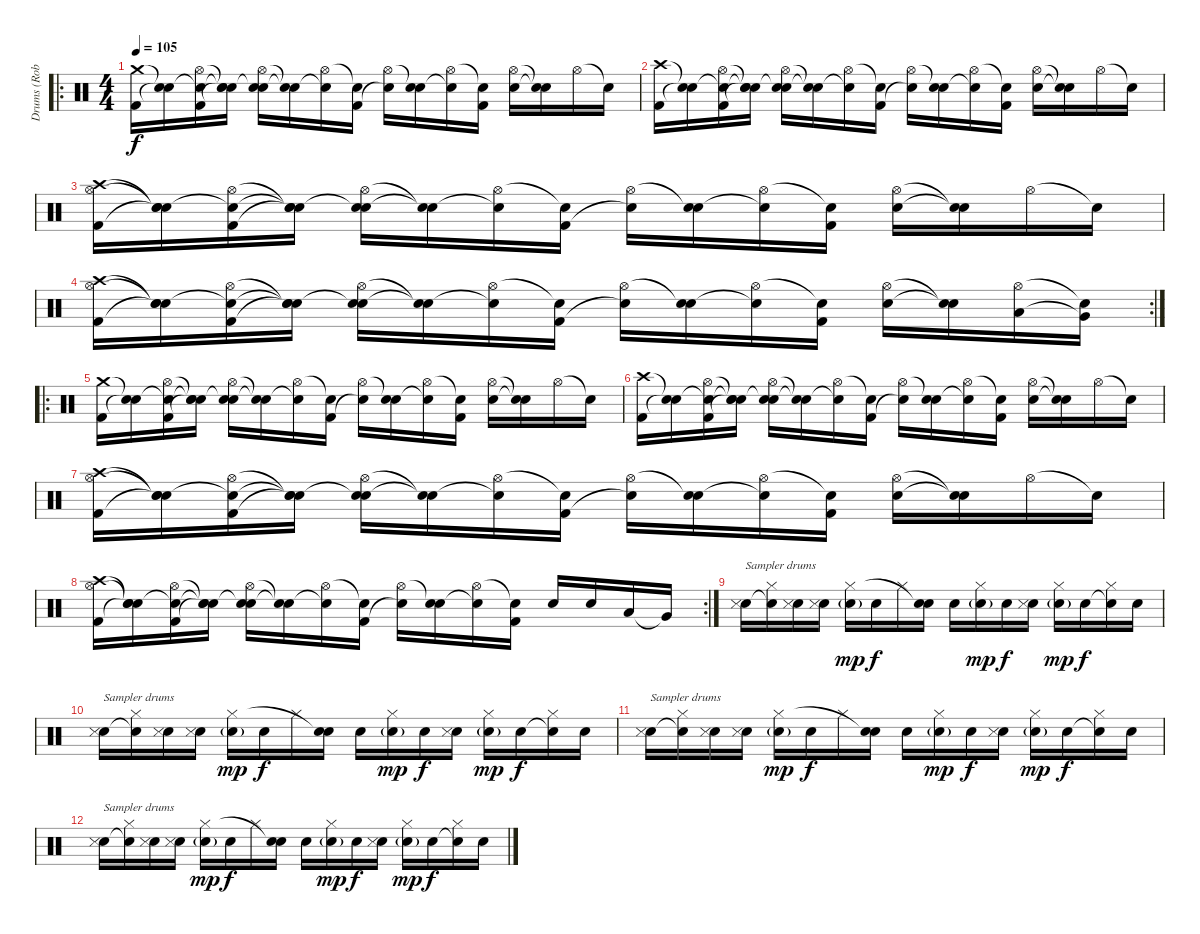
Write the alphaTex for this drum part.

\track ("Drums (Rob Bourdon)" "Drums (Rob") {instrument percussion}
\staff {score}
\articulation defaults
\ro
\ts (4 4)
\tempo 105
\clef neutral
\ks c
("Crash medium (hit)" "Kick (hit) 2").16{dy f} ("Snare (hit)"{t} "Snare (hit)"{t}).16 ("Snare (hit)"{t} "Hi-Hat (open)" "Kick (hit) 2").16 ("Snare (hit)"{t} "Snare (hit)"{t} "Snare (hit)"{t}).16 ("Snare (hit)"{t} "Hi-Hat (open)" "Electric Snare (hit)").16 ("Snare (hit)"{t} "Snare (hit)"{t}).16 ("Hi-Hat (open)" "Snare (hit)"{t}).16 ("Snare (hit)"{t} "Kick (hit) 2").16 ("Hi-Hat (open)" "Snare (hit)"{t}).16 ("Snare (hit)"{t} "Electric Snare (hit)").16 ("Hi-Hat (open)" "Snare (hit)"{t}).16 ("Snare (hit)"{t} "Kick (hit) 2").16 ("Hi-Hat (open)" "Electric Snare (hit)").16 ("Snare (hit)"{t} "Electric Snare (hit)"{t}).16 "Hi-Hat (open)".16 "Snare (hit)"{t}.16 |
("Crash high (hit)" "Kick (hit) 2").16 ("Snare (hit)"{t} "Snare (hit)"{t}).16 ("Snare (hit)"{t} "Hi-Hat (open)" "Kick (hit) 2").16 ("Snare (hit)"{t} "Snare (hit)"{t} "Snare (hit)"{t}).16 ("Snare (hit)"{t} "Hi-Hat (open)" "Electric Snare (hit)").16 ("Snare (hit)"{t} "Snare (hit)"{t}).16 ("Hi-Hat (open)" "Snare (hit)"{t}).16 ("Snare (hit)"{t} "Kick (hit) 2").16 ("Hi-Hat (open)" "Snare (hit)"{t}).16 ("Snare (hit)"{t} "Electric Snare (hit)").16 ("Hi-Hat (open)" "Snare (hit)"{t}).16 ("Snare (hit)"{t} "Kick (hit) 2").16 ("Hi-Hat (open)" "Electric Snare (hit)").16 ("Snare (hit)"{t} "Electric Snare (hit)"{t}).16 "Hi-Hat (open)".16 "Snare (hit)"{t}.16 |
("Crash high (hit)" "Hi-Hat (open)" "Kick (hit) 2").16 ("Snare (hit)"{t} "Snare (hit)"{t} "Snare (hit)"{t}).16 ("Snare (hit)"{t} "Hi-Hat (open)" "Kick (hit) 2").16 ("Snare (hit)"{t} "Snare (hit)"{t} "Snare (hit)"{t}).16 ("Snare (hit)"{t} "Hi-Hat (open)" "Electric Snare (hit)").16 ("Snare (hit)"{t} "Snare (hit)"{t}).16 ("Hi-Hat (open)" "Snare (hit)"{t}).16 ("Snare (hit)"{t} "Kick (hit) 2").16 ("Hi-Hat (open)" "Snare (hit)"{t}).16 ("Snare (hit)"{t} "Electric Snare (hit)").16 ("Hi-Hat (open)" "Snare (hit)"{t}).16 ("Snare (hit)"{t} "Kick (hit) 2").16 ("Hi-Hat (open)" "Electric Snare (hit)").16 ("Snare (hit)"{t} "Electric Snare (hit)"{t}).16 "Hi-Hat (open)".16 "Snare (hit)"{t}.16 |
\rc 2
("Crash high (hit)" "Hi-Hat (open)" "Kick (hit) 2").16 ("Snare (hit)"{t} "Snare (hit)"{t} "Snare (hit)"{t}).16 ("Snare (hit)"{t} "Hi-Hat (open)" "Kick (hit) 2").16 ("Snare (hit)"{t} "Snare (hit)"{t} "Snare (hit)"{t}).16 ("Snare (hit)"{t} "Hi-Hat (open)" "Electric Snare (hit)").16 ("Snare (hit)"{t} "Snare (hit)"{t}).16 ("Hi-Hat (open)" "Snare (hit)"{t}).16 ("Snare (hit)"{t} "Kick (hit) 2").16 ("Hi-Hat (open)" "Snare (hit)"{t}).16 ("Snare (hit)"{t} "Electric Snare (hit)").16 ("Hi-Hat (open)" "Snare (hit)"{t}).16 ("Snare (hit)"{t} "Kick (hit) 2").16 ("Hi-Hat (open)" "Electric Snare (hit)").16 ("Snare (hit)"{t} "Electric Snare (hit)"{t}).16 ("Hi-Hat (open)" "Low Tom (hit)").16 ("Snare (hit)"{t} "Very Low Tom (hit)"{t}).16 |
\ro
("Crash medium (hit)" "Kick (hit) 2").16 ("Snare (hit)"{t} "Snare (hit)"{t}).16 ("Snare (hit)"{t} "Hi-Hat (open)" "Kick (hit) 2").16 ("Snare (hit)"{t} "Snare (hit)"{t} "Snare (hit)"{t}).16 ("Snare (hit)"{t} "Hi-Hat (open)" "Electric Snare (hit)").16 ("Snare (hit)"{t} "Snare (hit)"{t}).16 ("Hi-Hat (open)" "Snare (hit)"{t}).16 ("Snare (hit)"{t} "Kick (hit) 2").16 ("Hi-Hat (open)" "Snare (hit)"{t}).16 ("Snare (hit)"{t} "Electric Snare (hit)").16 ("Hi-Hat (open)" "Snare (hit)"{t}).16 ("Snare (hit)"{t} "Kick (hit) 2").16 ("Hi-Hat (open)" "Electric Snare (hit)").16 ("Snare (hit)"{t} "Electric Snare (hit)"{t}).16 "Hi-Hat (open)".16 "Snare (hit)"{t}.16 |
("Crash high (hit)" "Kick (hit) 2").16 ("Snare (hit)"{t} "Snare (hit)"{t}).16 ("Snare (hit)"{t} "Hi-Hat (open)" "Kick (hit) 2").16 ("Snare (hit)"{t} "Snare (hit)"{t} "Snare (hit)"{t}).16 ("Snare (hit)"{t} "Hi-Hat (open)" "Electric Snare (hit)").16 ("Snare (hit)"{t} "Snare (hit)"{t}).16 ("Hi-Hat (open)" "Snare (hit)"{t}).16 ("Snare (hit)"{t} "Kick (hit) 2").16 ("Hi-Hat (open)" "Snare (hit)"{t}).16 ("Snare (hit)"{t} "Electric Snare (hit)").16 ("Hi-Hat (open)" "Snare (hit)"{t}).16 ("Snare (hit)"{t} "Kick (hit) 2").16 ("Hi-Hat (open)" "Electric Snare (hit)").16 ("Snare (hit)"{t} "Electric Snare (hit)"{t}).16 "Hi-Hat (open)".16 "Snare (hit)"{t}.16 |
("Crash high (hit)" "Hi-Hat (open)" "Kick (hit) 2").16 ("Snare (hit)"{t} "Snare (hit)"{t} "Snare (hit)"{t}).16 ("Snare (hit)"{t} "Hi-Hat (open)" "Kick (hit) 2").16 ("Snare (hit)"{t} "Snare (hit)"{t} "Snare (hit)"{t}).16 ("Snare (hit)"{t} "Hi-Hat (open)" "Electric Snare (hit)").16 ("Snare (hit)"{t} "Snare (hit)"{t}).16 ("Hi-Hat (open)" "Snare (hit)"{t}).16 ("Snare (hit)"{t} "Kick (hit) 2").16 ("Hi-Hat (open)" "Snare (hit)"{t}).16 ("Snare (hit)"{t} "Electric Snare (hit)").16 ("Hi-Hat (open)" "Snare (hit)"{t}).16 ("Snare (hit)"{t} "Kick (hit) 2").16 ("Hi-Hat (open)" "Electric Snare (hit)").16 ("Snare (hit)"{t} "Electric Snare (hit)"{t}).16 "Hi-Hat (open)".16 "Snare (hit)"{t}.16 |
\rc 2
("Crash high (hit)" "Hi-Hat (open)" "Kick (hit) 2").16 ("Snare (hit)"{t} "Snare (hit)"{t} "Snare (hit)"{t}).16 ("Snare (hit)"{t} "Hi-Hat (open)" "Kick (hit) 2").16 ("Snare (hit)"{t} "Snare (hit)"{t} "Snare (hit)"{t}).16 ("Snare (hit)"{t} "Hi-Hat (open)" "Electric Snare (hit)").16 ("Snare (hit)"{t} "Snare (hit)"{t}).16 ("Hi-Hat (open)" "Snare (hit)"{t}).16 ("Snare (hit)"{t} "Kick (hit) 2").16 ("Hi-Hat (open)" "Snare (hit)"{t}).16 ("Snare (hit)"{t} "Electric Snare (hit)").16 ("Hi-Hat (open)" "Snare (hit)"{t}).16 ("Snare (hit)"{t} "Kick (hit) 2").16 "Electric Snare (hit)".16 "Electric Snare (hit)".16 "Low Tom (hit)".16 "Very Low Tom (hit)"{t}.16 |
("Snare (hit)" "Metronome (hit)").16{txt "Sampler drums" volume 13} ("Hi-Hat (closed)" "Snare (hit)"{t}).16 ("Snare (hit)" "Metronome (hit)").16 ("Snare (hit)" "Metronome (hit)").16 ("Metronome (bell)"{g} "Hi-Hat (closed)").16{dy mp} "Snare (hit)".16{dy f} "Hi-Hat (closed)".16 ("Snare (hit)" "Snare (hit)"{t}).16 "Snare (hit)".16{volume 12} ("Metronome (bell)"{g} "Hi-Hat (closed)").16{dy mp} "Snare (hit)".16{dy f} ("Snare (hit)" "Metronome (hit)").16 ("Metronome (bell)"{g} "Hi-Hat (closed)").16{dy mp} "Snare (hit)".16{dy f} ("Snare (hit)"{t} "Hi-Hat (closed)").16 "Snare (hit)".16 |
("Snare (hit)" "Metronome (hit)").16{txt "Sampler drums" volume 11} ("Hi-Hat (closed)" "Snare (hit)"{t}).16 ("Snare (hit)" "Metronome (hit)").16 ("Snare (hit)" "Metronome (hit)").16 ("Metronome (bell)"{g} "Hi-Hat (closed)").16{dy mp} "Snare (hit)".16{dy f} "Hi-Hat (closed)".16 ("Snare (hit)" "Snare (hit)"{t}).16 "Snare (hit)".16{volume 9} ("Metronome (bell)"{g} "Hi-Hat (closed)").16{dy mp} "Snare (hit)".16{dy f} ("Snare (hit)" "Metronome (hit)").16 ("Metronome (bell)"{g} "Hi-Hat (closed)").16{dy mp} "Snare (hit)".16{dy f} ("Snare (hit)"{t} "Hi-Hat (closed)").16 "Snare (hit)".16 |
("Snare (hit)" "Metronome (hit)").16{txt "Sampler drums" volume 7} ("Hi-Hat (closed)" "Snare (hit)"{t}).16 ("Snare (hit)" "Metronome (hit)").16 ("Snare (hit)" "Metronome (hit)").16 ("Metronome (bell)"{g} "Hi-Hat (closed)").16{dy mp} "Snare (hit)".16{dy f} "Hi-Hat (closed)".16 ("Snare (hit)" "Snare (hit)"{t}).16 "Snare (hit)".16{volume 5} ("Metronome (bell)"{g} "Hi-Hat (closed)").16{dy mp} "Snare (hit)".16{dy f} ("Snare (hit)" "Metronome (hit)").16 ("Metronome (bell)"{g} "Hi-Hat (closed)").16{dy mp} "Snare (hit)".16{dy f} ("Snare (hit)"{t} "Hi-Hat (closed)").16 "Snare (hit)".16 |
("Snare (hit)" "Metronome (hit)").16{txt "Sampler drums" volume 4} ("Hi-Hat (closed)" "Snare (hit)"{t}).16 ("Snare (hit)" "Metronome (hit)").16 ("Snare (hit)" "Metronome (hit)").16 ("Metronome (bell)"{g} "Hi-Hat (closed)").16{dy mp} "Snare (hit)".16{dy f} "Hi-Hat (closed)".16 ("Snare (hit)" "Snare (hit)"{t}).16 "Snare (hit)".16{volume 3} ("Metronome (bell)"{g} "Hi-Hat (closed)").16{dy mp} "Snare (hit)".16{dy f} ("Snare (hit)" "Metronome (hit)").16 ("Metronome (bell)"{g} "Hi-Hat (closed)").16{dy mp} "Snare (hit)".16{dy f} ("Snare (hit)"{t} "Hi-Hat (closed)").16 "Snare (hit)".16
